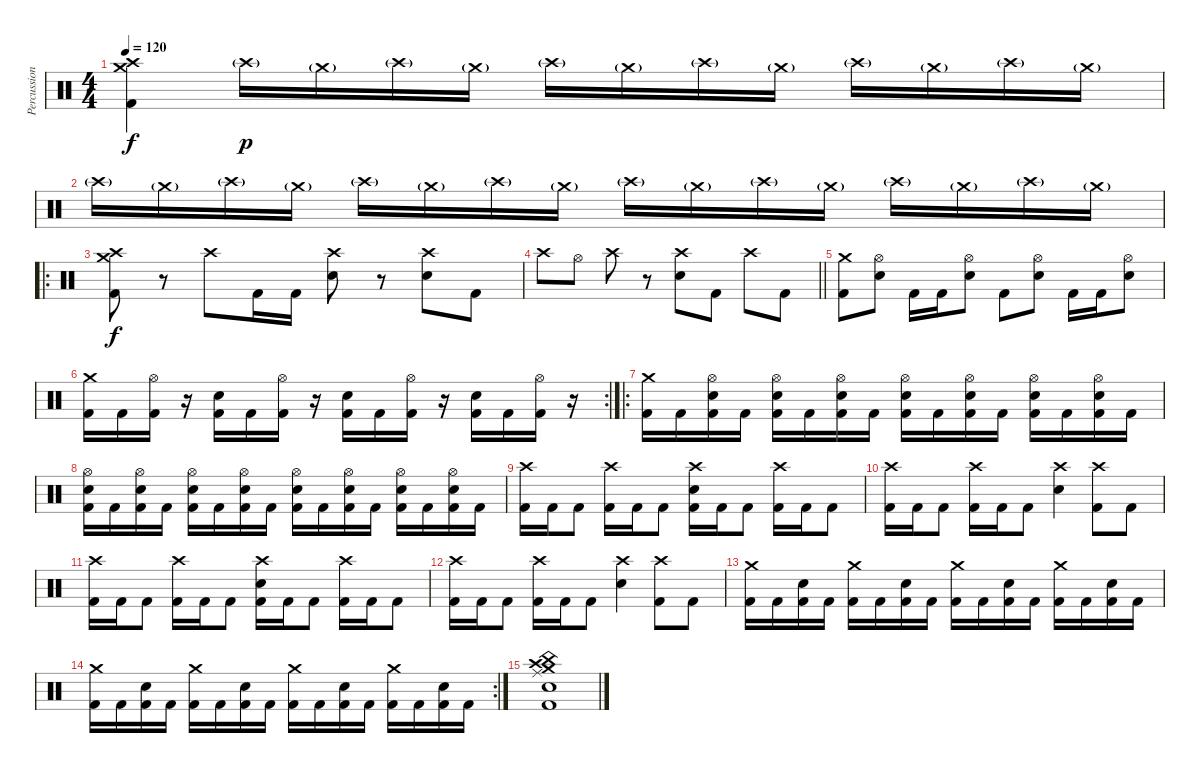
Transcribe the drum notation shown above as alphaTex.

\track ("Percussions" "Percussion") {instrument percussion}
\staff {score}
\articulation defaults
\ts (4 4)
\tempo 120
\clef neutral
\ks c
("Crash medium (hit)" "Crash high (hit)" "Kick (hit) 2").4{dy f} "Crash high (hit)"{g}.16{dy p} "Crash medium (hit)"{g}.16 "Crash high (hit)"{g}.16 "Crash medium (hit)"{g}.16 "Crash high (hit)"{g}.16 "Crash medium (hit)"{g}.16 "Crash high (hit)"{g}.16 "Crash medium (hit)"{g}.16 "Crash high (hit)"{g}.16 "Crash medium (hit)"{g}.16 "Crash high (hit)"{g}.16 "Crash medium (hit)"{g}.16 |
"Crash high (hit)"{g}.16 "Crash medium (hit)"{g}.16 "Crash high (hit)"{g}.16 "Crash medium (hit)"{g}.16 "Crash high (hit)"{g}.16 "Crash medium (hit)"{g}.16 "Crash high (hit)"{g}.16 "Crash medium (hit)"{g}.16 "Crash high (hit)"{g}.16 "Crash medium (hit)"{g}.16 "Crash high (hit)"{g}.16 "Crash medium (hit)"{g}.16 "Crash high (hit)"{g}.16 "Crash medium (hit)"{g}.16 "Crash high (hit)"{g}.16 "Crash medium (hit)"{g}.16 |
\ro
("Crash medium (hit)" "Crash high (hit)" "Kick (hit) 2").8{dy f} r.8 "Crash high (hit)".8 "Kick (hit) 2".16 "Kick (hit) 2".16 ("Crash high (hit)" "Electric Snare (hit)").8 r.8 ("Crash high (hit)" "Electric Snare (hit)").8 "Kick (hit) 2".8 |
\barLineRight lightlight "Crash high (hit)".8 "Hi-Hat (open)".8 "Crash high (hit)".8
r.8 ("Crash high (hit)" "Electric Snare (hit)").8 "Kick (hit) 2".8 "Crash high (hit)".8 "Kick (hit) 2".8 |
("Crash medium (hit)" "Kick (hit) 2").8 ("Hi-Hat (open)" "Electric Snare (hit)").8 "Kick (hit) 2".16 "Kick (hit) 2".16 ("Hi-Hat (open)" "Electric Snare (hit)").8 "Kick (hit) 2".8 ("Hi-Hat (open)" "Electric Snare (hit)").8 "Kick (hit) 2".16 "Kick (hit) 2".16 ("Hi-Hat (open)" "Electric Snare (hit)").8 |
\rc 2
("Crash medium (hit)" "Kick (hit) 2").16 "Kick (hit) 2".16 ("Hi-Hat (open)" "Kick (hit) 2").16 r.16 ("Electric Snare (hit)" "Kick (hit) 2").16 "Kick (hit) 2".16 ("Hi-Hat (open)" "Kick (hit) 2").16 r.16 ("Electric Snare (hit)" "Kick (hit) 2").16 "Kick (hit) 2".16 ("Hi-Hat (open)" "Kick (hit) 2").16 r.16 ("Electric Snare (hit)" "Kick (hit) 2").16 "Kick (hit) 2".16 ("Hi-Hat (open)" "Kick (hit) 2").16 r.16 |
\ro
("Crash medium (hit)" "Kick (hit) 2").16 "Kick (hit) 2".16 ("Hi-Hat (open)" "Electric Snare (hit)" "Kick (hit) 2").16 "Kick (hit) 2".16 ("Hi-Hat (open)" "Electric Snare (hit)" "Kick (hit) 2").16 "Kick (hit) 2".16 ("Hi-Hat (open)" "Electric Snare (hit)" "Kick (hit) 2").16 "Kick (hit) 2".16 ("Hi-Hat (open)" "Electric Snare (hit)" "Kick (hit) 2").16 "Kick (hit) 2".16 ("Hi-Hat (open)" "Electric Snare (hit)" "Kick (hit) 2").16 "Kick (hit) 2".16 ("Hi-Hat (open)" "Electric Snare (hit)" "Kick (hit) 2").16 "Kick (hit) 2".16 ("Hi-Hat (open)" "Electric Snare (hit)" "Kick (hit) 2").16 "Kick (hit) 2".16 |
("Hi-Hat (open)" "Electric Snare (hit)" "Kick (hit) 2").16 "Kick (hit) 2".16 ("Hi-Hat (open)" "Electric Snare (hit)" "Kick (hit) 2").16 "Kick (hit) 2".16 ("Hi-Hat (open)" "Electric Snare (hit)" "Kick (hit) 2").16 "Kick (hit) 2".16 ("Hi-Hat (open)" "Electric Snare (hit)" "Kick (hit) 2").16 "Kick (hit) 2".16 ("Hi-Hat (open)" "Electric Snare (hit)" "Kick (hit) 2").16 "Kick (hit) 2".16 ("Hi-Hat (open)" "Electric Snare (hit)" "Kick (hit) 2").16 "Kick (hit) 2".16 ("Hi-Hat (open)" "Electric Snare (hit)" "Kick (hit) 2").16 "Kick (hit) 2".16 ("Hi-Hat (open)" "Electric Snare (hit)" "Kick (hit) 2").16 "Kick (hit) 2".16 |
("Crash high (hit)" "Kick (hit) 2").16 "Kick (hit) 2".16 "Kick (hit) 2".8 ("Crash high (hit)" "Kick (hit) 2").16 "Kick (hit) 2".16 "Kick (hit) 2".8 ("Crash high (hit)" "Electric Snare (hit)" "Kick (hit) 2").16 "Kick (hit) 2".16 "Kick (hit) 2".8 ("Crash high (hit)" "Kick (hit) 2").16 "Kick (hit) 2".16 "Kick (hit) 2".8 |
("Crash high (hit)" "Kick (hit) 2").16 "Kick (hit) 2".16 "Kick (hit) 2".8 ("Crash high (hit)" "Kick (hit) 2").16 "Kick (hit) 2".16 "Kick (hit) 2".8 ("Crash high (hit)" "Electric Snare (hit)").4 ("Crash high (hit)" "Kick (hit) 2").8 "Kick (hit) 2".8 |
("Crash high (hit)" "Kick (hit) 2").16 "Kick (hit) 2".16 "Kick (hit) 2".8 ("Crash high (hit)" "Kick (hit) 2").16 "Kick (hit) 2".16 "Kick (hit) 2".8 ("Crash high (hit)" "Electric Snare (hit)" "Kick (hit) 2").16 "Kick (hit) 2".16 "Kick (hit) 2".8 ("Crash high (hit)" "Kick (hit) 2").16 "Kick (hit) 2".16 "Kick (hit) 2".8 |
("Crash high (hit)" "Kick (hit) 2").16 "Kick (hit) 2".16 "Kick (hit) 2".8 ("Crash high (hit)" "Kick (hit) 2").16 "Kick (hit) 2".16 "Kick (hit) 2".8 ("Crash high (hit)" "Electric Snare (hit)").4 ("Crash high (hit)" "Kick (hit) 2").8 "Kick (hit) 2".8 |
("Crash medium (hit)" "Kick (hit) 2").16 "Kick (hit) 2".16 ("Electric Snare (hit)" "Kick (hit) 2").16 "Kick (hit) 2".16 ("Crash medium (hit)" "Kick (hit) 2").16 "Kick (hit) 2".16 ("Electric Snare (hit)" "Kick (hit) 2").16 "Kick (hit) 2".16 ("Crash medium (hit)" "Kick (hit) 2").16 "Kick (hit) 2".16 ("Electric Snare (hit)" "Kick (hit) 2").16 "Kick (hit) 2".16 ("Crash medium (hit)" "Kick (hit) 2").16 "Kick (hit) 2".16 ("Electric Snare (hit)" "Kick (hit) 2").16 "Kick (hit) 2".16 |
\rc 2
("Crash medium (hit)" "Kick (hit) 2").16 "Kick (hit) 2".16 ("Electric Snare (hit)" "Kick (hit) 2").16 "Kick (hit) 2".16 ("Crash medium (hit)" "Kick (hit) 2").16 "Kick (hit) 2".16 ("Electric Snare (hit)" "Kick (hit) 2").16 "Kick (hit) 2".16 ("Crash medium (hit)" "Kick (hit) 2").16 "Kick (hit) 2".16 ("Electric Snare (hit)" "Kick (hit) 2").16 "Kick (hit) 2".16 ("Crash medium (hit)" "Kick (hit) 2").16 "Kick (hit) 2".16 ("Electric Snare (hit)" "Kick (hit) 2").16 "Kick (hit) 2".16 |
("China (hit)" "Crash medium (hit)" "Crash high (hit)" "Electric Snare (hit)" "Kick (hit) 2" "Ride (middle)").1
